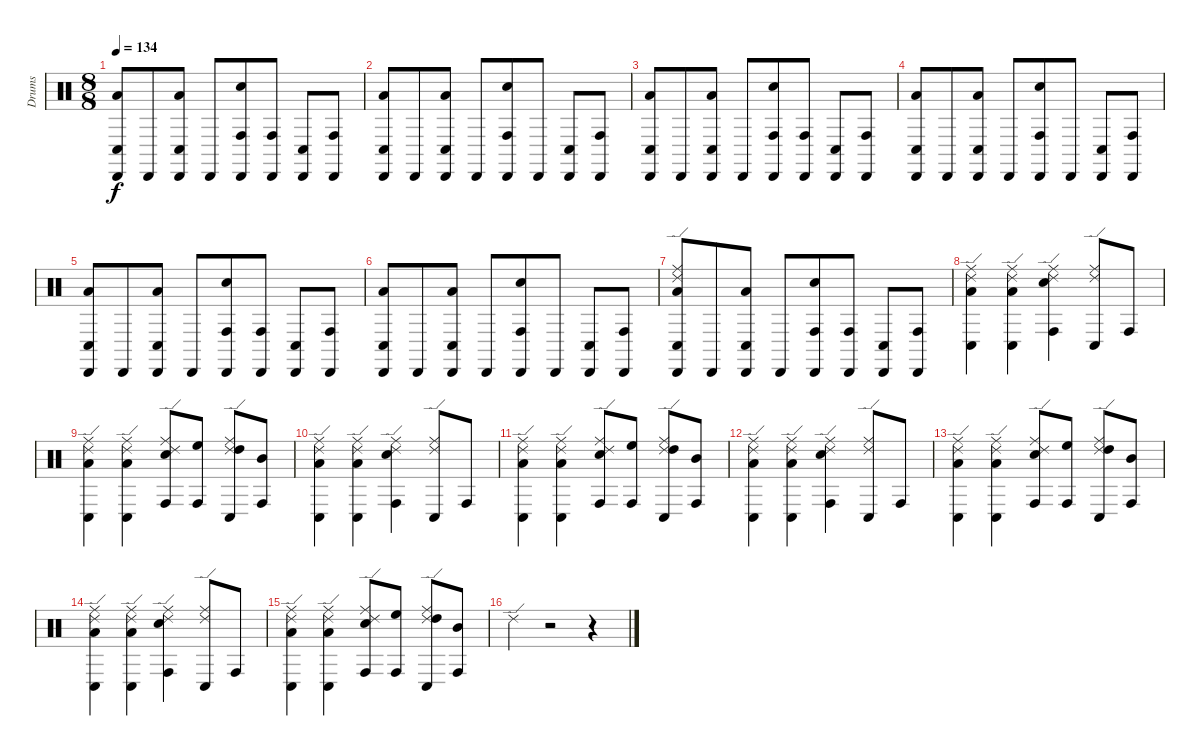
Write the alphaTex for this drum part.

\track ("Drums" "Drums") {instrument percussion}
\staff {score}
\articulation defaults
\ts (8 8)
\tempo 134
\clef neutral
\ks c
("Cabasa (hit)" "Low Tom (hit)" "Conga low (hit)").8{dy f} "Cabasa (hit)".8 ("Cabasa (hit)" "Low Tom (hit)" "Conga low (hit)").8 "Cabasa (hit)".8 ("Electric Snare (hit)" "Cabasa (hit)" "Conga high (hit)").8 ("Conga high (hit)" "Cabasa (hit)").8 ("Cabasa (hit)" "Conga low (hit)").8 ("Cabasa (hit)" "Conga high (hit)").8 |
("Cabasa (hit)" "Low Tom (hit)" "Conga low (hit)").8 "Cabasa (hit)".8 ("Cabasa (hit)" "Low Tom (hit)" "Conga low (hit)").8 "Cabasa (hit)".8 ("Electric Snare (hit)" "Cabasa (hit)" "Conga high (hit)").8 "Cabasa (hit)".8 ("Cabasa (hit)" "Conga low (hit)").8 ("Cabasa (hit)" "Conga high (hit)").8 |
("Cabasa (hit)" "Low Tom (hit)" "Conga low (hit)").8 "Cabasa (hit)".8 ("Cabasa (hit)" "Low Tom (hit)" "Conga low (hit)").8 "Cabasa (hit)".8 ("Electric Snare (hit)" "Cabasa (hit)" "Conga high (hit)").8 ("Conga high (hit)" "Cabasa (hit)").8 ("Cabasa (hit)" "Conga low (hit)").8 ("Cabasa (hit)" "Conga high (hit)").8 |
("Cabasa (hit)" "Low Tom (hit)" "Conga low (hit)").8 "Cabasa (hit)".8 ("Cabasa (hit)" "Low Tom (hit)" "Conga low (hit)").8 "Cabasa (hit)".8 ("Electric Snare (hit)" "Cabasa (hit)" "Conga high (hit)").8 "Cabasa (hit)".8 ("Cabasa (hit)" "Conga low (hit)").8 ("Cabasa (hit)" "Conga high (hit)").8 |
("Cabasa (hit)" "Low Tom (hit)" "Conga low (hit)").8 "Cabasa (hit)".8 ("Cabasa (hit)" "Low Tom (hit)" "Conga low (hit)").8 "Cabasa (hit)".8 ("Electric Snare (hit)" "Cabasa (hit)" "Conga high (hit)").8 ("Conga high (hit)" "Cabasa (hit)").8 ("Cabasa (hit)" "Conga low (hit)").8 ("Cabasa (hit)" "Conga high (hit)").8 |
("Cabasa (hit)" "Low Tom (hit)" "Conga low (hit)").8 "Cabasa (hit)".8 ("Cabasa (hit)" "Low Tom (hit)" "Conga low (hit)").8 "Cabasa (hit)".8 ("Electric Snare (hit)" "Cabasa (hit)" "Conga high (hit)").8 "Cabasa (hit)".8 ("Cabasa (hit)" "Conga low (hit)").8 ("Cabasa (hit)" "Conga high (hit)").8 |
("Ride (middle)" "Ride (edge) 2" "Cabasa (hit)" "Low Tom (hit)" "Conga low (hit)").8 "Cabasa (hit)".8 ("Cabasa (hit)" "Low Tom (hit)" "Conga low (hit)").8 "Cabasa (hit)".8 ("Electric Snare (hit)" "Cabasa (hit)" "Conga high (hit)").8 ("Conga high (hit)" "Cabasa (hit)").8 ("Cabasa (hit)" "Conga low (hit)").8 ("Cabasa (hit)" "Conga high (hit)").8 |
("Ride (edge) 2" "Ride (middle)" "Low Tom (hit)" "Conga low (hit)").4 ("Ride (edge) 2" "Ride (middle)" "Low Tom (hit)" "Conga low (hit)").4 ("Electric Snare (hit)" "Ride (edge) 2" "Ride (middle)" "Conga high (hit)").4 ("Ride (edge) 2" "Ride (middle)" "Conga low (hit)").8 "Conga high (hit)".8 |
("Ride (edge) 2" "Conga low (hit)" "Ride (middle)" "Low Tom (hit)").4 ("Ride (edge) 2" "Ride (middle)" "Low Tom (hit)" "Conga low (hit)").4 ("Electric Snare (hit)" "Ride (edge) 2" "Ride (middle)" "Conga high (hit)").8 ("High Floor Tom (hit)" "Conga high (hit)").8 ("Ride (edge) 2" "Ride (middle)" "High Tom (hit)" "Conga low (hit)").8 ("Mid Tom (hit)" "Conga high (hit)").8 |
("Ride (edge) 2" "Ride (middle)" "Low Tom (hit)" "Conga low (hit)").4 ("Ride (edge) 2" "Ride (middle)" "Low Tom (hit)" "Conga low (hit)").4 ("Electric Snare (hit)" "Ride (edge) 2" "Ride (middle)" "Conga high (hit)").4 ("Ride (edge) 2" "Ride (middle)" "Conga low (hit)").8 "Conga high (hit)".8 |
("Ride (edge) 2" "Conga low (hit)" "Ride (middle)" "Low Tom (hit)").4 ("Ride (edge) 2" "Ride (middle)" "Low Tom (hit)" "Conga low (hit)").4 ("Electric Snare (hit)" "Ride (edge) 2" "Ride (middle)" "Conga high (hit)").8 ("High Floor Tom (hit)" "Conga high (hit)").8 ("Ride (edge) 2" "Ride (middle)" "High Tom (hit)" "Conga low (hit)").8 ("Mid Tom (hit)" "Conga high (hit)").8 |
("Ride (edge) 2" "Ride (middle)" "Low Tom (hit)" "Conga low (hit)").4 ("Ride (edge) 2" "Ride (middle)" "Low Tom (hit)" "Conga low (hit)").4 ("Electric Snare (hit)" "Ride (edge) 2" "Ride (middle)" "Conga high (hit)").4 ("Ride (edge) 2" "Ride (middle)" "Conga low (hit)").8 "Conga high (hit)".8 |
("Ride (edge) 2" "Conga low (hit)" "Ride (middle)" "Low Tom (hit)").4 ("Ride (edge) 2" "Ride (middle)" "Low Tom (hit)" "Conga low (hit)").4 ("Electric Snare (hit)" "Ride (edge) 2" "Ride (middle)" "Conga high (hit)").8 ("High Floor Tom (hit)" "Conga high (hit)").8 ("Ride (edge) 2" "Ride (middle)" "High Tom (hit)" "Conga low (hit)").8 ("Mid Tom (hit)" "Conga high (hit)").8 |
("Ride (edge) 2" "Ride (middle)" "Low Tom (hit)" "Conga low (hit)").4 ("Ride (edge) 2" "Ride (middle)" "Low Tom (hit)" "Conga low (hit)").4 ("Electric Snare (hit)" "Ride (edge) 2" "Ride (middle)" "Conga high (hit)").4 ("Ride (edge) 2" "Ride (middle)" "Conga low (hit)").8 "Conga high (hit)".8 |
("Ride (edge) 2" "Conga low (hit)" "Ride (middle)" "Low Tom (hit)").4 ("Ride (edge) 2" "Ride (middle)" "Low Tom (hit)" "Conga low (hit)").4 ("Electric Snare (hit)" "Ride (edge) 2" "Ride (middle)" "Conga high (hit)").8 ("High Floor Tom (hit)" "Conga high (hit)").8 ("Ride (edge) 2" "Ride (middle)" "High Tom (hit)" "Conga low (hit)").8 ("Mid Tom (hit)" "Conga high (hit)").8 |
"Ride (edge) 2".4 r.2 r.4
